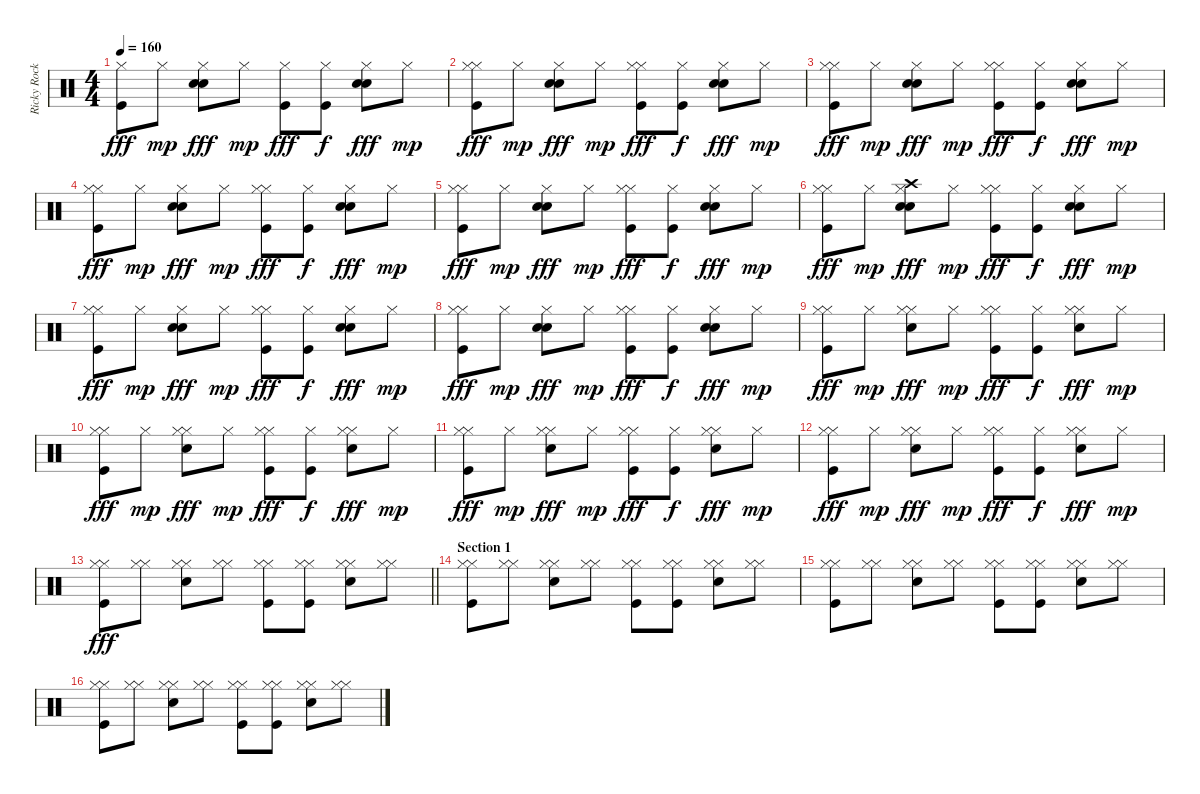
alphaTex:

\track ("Ricky Rockett" "Ricky Rock") {instrument percussion}
\staff {score}
\articulation defaults
\ts (4 4)
\tempo 160
\clef neutral
\ks c
("Hi-Hat (closed)" "Kick (hit)").8{dy fff} "Hi-Hat (closed)".8{dy mp} ("Snare (hit) 2" "Hi-Hat (closed)" "Electric Snare (hit)").8{dy fff} "Hi-Hat (closed)".8{dy mp} ("Hi-Hat (closed)" "Kick (hit)").8{dy fff} ("Hi-Hat (closed)" "Kick (hit)").8{dy f} ("Snare (hit) 2" "Hi-Hat (closed)" "Electric Snare (hit)").8{dy fff} "Hi-Hat (closed)".8{dy mp} |
("Hi-Hat (closed)" "Kick (hit)" "Hi-Hat (closed)").8{dy fff} "Hi-Hat (closed)".8{dy mp} ("Snare (hit) 2" "Hi-Hat (closed)" "Electric Snare (hit)").8{dy fff} "Hi-Hat (closed)".8{dy mp} ("Hi-Hat (closed)" "Kick (hit)" "Hi-Hat (closed)").8{dy fff} ("Hi-Hat (closed)" "Kick (hit)").8{dy f} ("Snare (hit) 2" "Hi-Hat (closed)" "Electric Snare (hit)").8{dy fff} "Hi-Hat (closed)".8{dy mp} |
("Hi-Hat (closed)" "Kick (hit)" "Hi-Hat (closed)").8{dy fff} "Hi-Hat (closed)".8{dy mp} ("Snare (hit) 2" "Hi-Hat (closed)" "Electric Snare (hit)").8{dy fff} "Hi-Hat (closed)".8{dy mp} ("Hi-Hat (closed)" "Kick (hit)" "Hi-Hat (closed)").8{dy fff} ("Hi-Hat (closed)" "Kick (hit)").8{dy f} ("Snare (hit) 2" "Hi-Hat (closed)" "Electric Snare (hit)").8{dy fff} "Hi-Hat (closed)".8{dy mp} |
("Hi-Hat (closed)" "Kick (hit)" "Hi-Hat (closed)").8{dy fff} "Hi-Hat (closed)".8{dy mp} ("Snare (hit) 2" "Hi-Hat (closed)" "Electric Snare (hit)").8{dy fff} "Hi-Hat (closed)".8{dy mp} ("Hi-Hat (closed)" "Kick (hit)" "Hi-Hat (closed)").8{dy fff} ("Hi-Hat (closed)" "Kick (hit)").8{dy f} ("Snare (hit) 2" "Hi-Hat (closed)" "Electric Snare (hit)").8{dy fff} "Hi-Hat (closed)".8{dy mp} |
("Hi-Hat (closed)" "Kick (hit)" "Hi-Hat (closed)").8{dy fff} "Hi-Hat (closed)".8{dy mp} ("Snare (hit) 2" "Hi-Hat (closed)" "Electric Snare (hit)").8{dy fff} "Hi-Hat (closed)".8{dy mp} ("Hi-Hat (closed)" "Kick (hit)" "Hi-Hat (closed)").8{dy fff} ("Hi-Hat (closed)" "Kick (hit)").8{dy f} ("Snare (hit) 2" "Hi-Hat (closed)" "Electric Snare (hit)").8{dy fff} "Hi-Hat (closed)".8{dy mp} |
("Hi-Hat (closed)" "Kick (hit)" "Hi-Hat (closed)").8{dy fff} "Hi-Hat (closed)".8{dy mp} ("Snare (hit) 2" "Hi-Hat (closed)" "Electric Snare (hit)" "Crash high (hit)").8{dy fff} "Hi-Hat (closed)".8{dy mp} ("Hi-Hat (closed)" "Kick (hit)" "Hi-Hat (closed)").8{dy fff} ("Hi-Hat (closed)" "Kick (hit)").8{dy f} ("Snare (hit) 2" "Hi-Hat (closed)" "Electric Snare (hit)").8{dy fff} "Hi-Hat (closed)".8{dy mp} |
("Hi-Hat (closed)" "Kick (hit)" "Hi-Hat (closed)").8{dy fff} "Hi-Hat (closed)".8{dy mp} ("Snare (hit) 2" "Hi-Hat (closed)" "Electric Snare (hit)").8{dy fff} "Hi-Hat (closed)".8{dy mp} ("Hi-Hat (closed)" "Kick (hit)" "Hi-Hat (closed)").8{dy fff} ("Hi-Hat (closed)" "Kick (hit)").8{dy f} ("Snare (hit) 2" "Hi-Hat (closed)" "Electric Snare (hit)").8{dy fff} "Hi-Hat (closed)".8{dy mp} |
("Hi-Hat (closed)" "Kick (hit)" "Hi-Hat (closed)").8{dy fff} "Hi-Hat (closed)".8{dy mp} ("Snare (hit) 2" "Hi-Hat (closed)" "Electric Snare (hit)").8{dy fff} "Hi-Hat (closed)".8{dy mp} ("Hi-Hat (closed)" "Kick (hit)" "Hi-Hat (closed)").8{dy fff} ("Hi-Hat (closed)" "Kick (hit)").8{dy f} ("Snare (hit) 2" "Hi-Hat (closed)" "Electric Snare (hit)").8{dy fff} "Hi-Hat (closed)".8{dy mp} |
("Hi-Hat (closed)" "Kick (hit)" "Hi-Hat (closed)").8{dy fff} "Hi-Hat (closed)".8{dy mp} ("Snare (hit) 2" "Hi-Hat (closed)" "Hi-Hat (closed)").8{dy fff} "Hi-Hat (closed)".8{dy mp} ("Hi-Hat (closed)" "Kick (hit)" "Hi-Hat (closed)").8{dy fff} ("Hi-Hat (closed)" "Kick (hit)").8{dy f} ("Snare (hit) 2" "Hi-Hat (closed)" "Hi-Hat (closed)").8{dy fff} "Hi-Hat (closed)".8{dy mp} |
("Hi-Hat (closed)" "Kick (hit)" "Hi-Hat (closed)").8{dy fff} "Hi-Hat (closed)".8{dy mp} ("Snare (hit) 2" "Hi-Hat (closed)" "Hi-Hat (closed)").8{dy fff} "Hi-Hat (closed)".8{dy mp} ("Hi-Hat (closed)" "Kick (hit)" "Hi-Hat (closed)").8{dy fff} ("Hi-Hat (closed)" "Kick (hit)").8{dy f} ("Snare (hit) 2" "Hi-Hat (closed)" "Hi-Hat (closed)").8{dy fff} "Hi-Hat (closed)".8{dy mp} |
("Hi-Hat (closed)" "Kick (hit)" "Hi-Hat (closed)").8{dy fff} "Hi-Hat (closed)".8{dy mp} ("Snare (hit) 2" "Hi-Hat (closed)" "Hi-Hat (closed)").8{dy fff} "Hi-Hat (closed)".8{dy mp} ("Hi-Hat (closed)" "Kick (hit)" "Hi-Hat (closed)").8{dy fff} ("Hi-Hat (closed)" "Kick (hit)").8{dy f} ("Snare (hit) 2" "Hi-Hat (closed)" "Hi-Hat (closed)").8{dy fff} "Hi-Hat (closed)".8{dy mp} |
("Hi-Hat (closed)" "Kick (hit)" "Hi-Hat (closed)").8{dy fff} "Hi-Hat (closed)".8{dy mp} ("Snare (hit) 2" "Hi-Hat (closed)" "Hi-Hat (closed)").8{dy fff} "Hi-Hat (closed)".8{dy mp} ("Hi-Hat (closed)" "Kick (hit)" "Hi-Hat (closed)").8{dy fff} ("Hi-Hat (closed)" "Kick (hit)").8{dy f} ("Snare (hit) 2" "Hi-Hat (closed)" "Hi-Hat (closed)").8{dy fff} "Hi-Hat (closed)".8{dy mp} |
\barLineRight lightlight
("Hi-Hat (closed)" "Kick (hit)" "Hi-Hat (closed)").8{dy fff} ("Hi-Hat (closed)" "Hi-Hat (closed)").8 ("Snare (hit) 2" "Hi-Hat (closed)" "Hi-Hat (closed)").8 ("Hi-Hat (closed)" "Hi-Hat (closed)").8 ("Hi-Hat (closed)" "Kick (hit)" "Hi-Hat (closed)").8 ("Hi-Hat (closed)" "Kick (hit)" "Hi-Hat (closed)").8 ("Snare (hit) 2" "Hi-Hat (closed)" "Hi-Hat (closed)").8 ("Hi-Hat (closed)" "Hi-Hat (closed)").8 |
\section ("" "Section 1")
("Hi-Hat (closed)" "Kick (hit)" "Hi-Hat (closed)").8 ("Hi-Hat (closed)" "Hi-Hat (closed)").8 ("Snare (hit) 2" "Hi-Hat (closed)" "Hi-Hat (closed)").8 ("Hi-Hat (closed)" "Hi-Hat (closed)").8 ("Hi-Hat (closed)" "Kick (hit)" "Hi-Hat (closed)").8 ("Hi-Hat (closed)" "Kick (hit)" "Hi-Hat (closed)").8 ("Snare (hit) 2" "Hi-Hat (closed)" "Hi-Hat (closed)").8 ("Hi-Hat (closed)" "Hi-Hat (closed)").8 |
("Hi-Hat (closed)" "Kick (hit)" "Hi-Hat (closed)").8 ("Hi-Hat (closed)" "Hi-Hat (closed)").8 ("Snare (hit) 2" "Hi-Hat (closed)" "Hi-Hat (closed)").8 ("Hi-Hat (closed)" "Hi-Hat (closed)").8 ("Hi-Hat (closed)" "Kick (hit)" "Hi-Hat (closed)").8 ("Hi-Hat (closed)" "Kick (hit)" "Hi-Hat (closed)").8 ("Snare (hit) 2" "Hi-Hat (closed)" "Hi-Hat (closed)").8 ("Hi-Hat (closed)" "Hi-Hat (closed)").8 |
("Hi-Hat (closed)" "Kick (hit)" "Hi-Hat (closed)").8 ("Hi-Hat (closed)" "Hi-Hat (closed)").8 ("Snare (hit) 2" "Hi-Hat (closed)" "Hi-Hat (closed)").8 ("Hi-Hat (closed)" "Hi-Hat (closed)").8 ("Hi-Hat (closed)" "Kick (hit)" "Hi-Hat (closed)").8 ("Hi-Hat (closed)" "Kick (hit)" "Hi-Hat (closed)").8 ("Snare (hit) 2" "Hi-Hat (closed)" "Hi-Hat (closed)").8 ("Hi-Hat (closed)" "Hi-Hat (closed)").8
